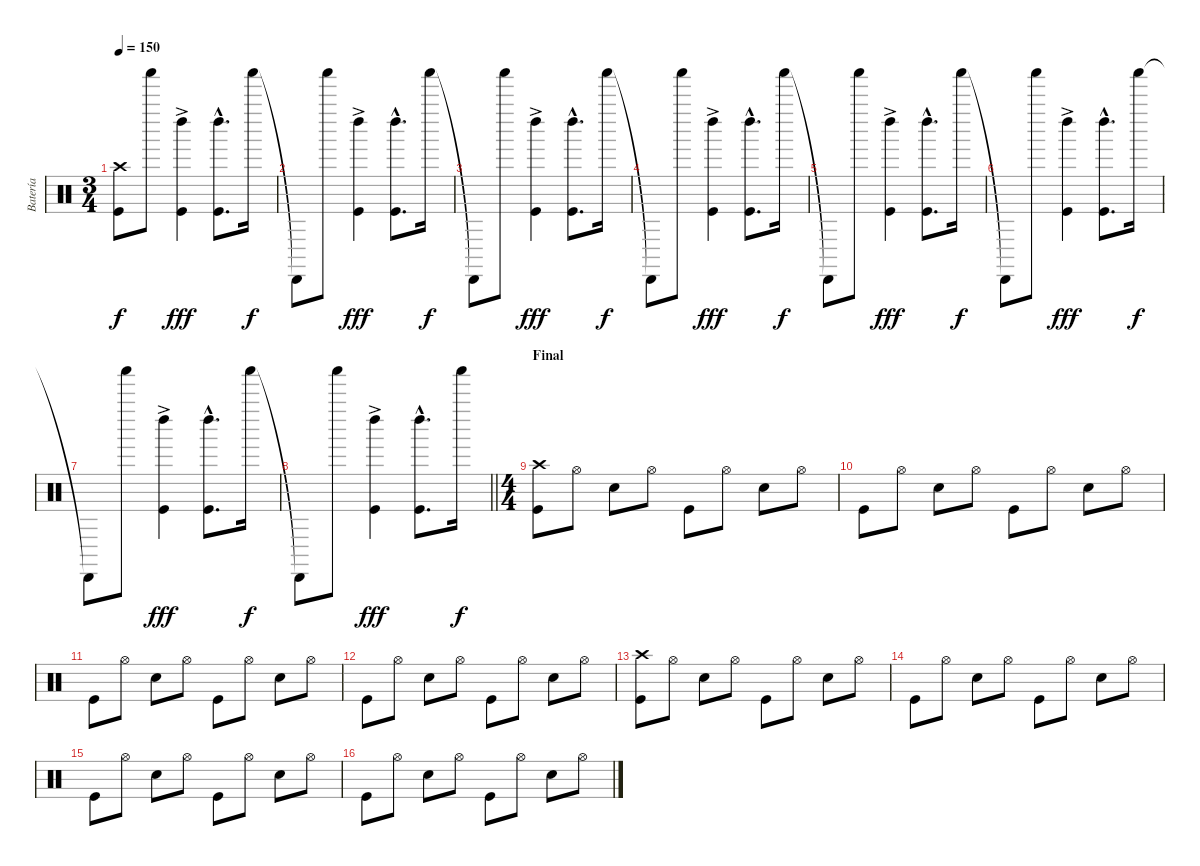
\track ("Batería" "Batería") {instrument percussion}
\staff {score}
\articulation defaults
\ts (3 4)
\tempo 150
\clef neutral
\ks c
("Crash high (hit)" "Kick (hit)").8{dy f} "Shaker (hit)".8 ("Left Maraca (hit)"{ac} "Kick (hit)"{ac}).4{dy fff} ("Left Maraca (hit)"{hac} "Kick (hit)"{hac}).8{d} "Shaker (hit)".16{dy f} |
"Cabasa (hit)"{t}.8 "Shaker (hit)".8 ("Left Maraca (hit)"{ac} "Kick (hit)"{ac}).4{dy fff} ("Left Maraca (hit)"{hac} "Kick (hit)"{hac}).8{d} "Shaker (hit)".16{dy f} |
"Cabasa (hit)"{t}.8 "Shaker (hit)".8 ("Left Maraca (hit)"{ac} "Kick (hit)"{ac}).4{dy fff} ("Left Maraca (hit)"{hac} "Kick (hit)"{hac}).8{d} "Shaker (hit)".16{dy f} |
"Cabasa (hit)"{t}.8 "Shaker (hit)".8 ("Left Maraca (hit)"{ac} "Kick (hit)"{ac}).4{dy fff} ("Left Maraca (hit)"{hac} "Kick (hit)"{hac}).8{d} "Shaker (hit)".16{dy f} |
"Cabasa (hit)"{t}.8 "Shaker (hit)".8 ("Left Maraca (hit)"{ac} "Kick (hit)"{ac}).4{dy fff} ("Left Maraca (hit)"{hac} "Kick (hit)"{hac}).8{d} "Shaker (hit)".16{dy f} |
"Cabasa (hit)"{t}.8 "Shaker (hit)".8 ("Left Maraca (hit)"{ac} "Kick (hit)"{ac}).4{dy fff} ("Left Maraca (hit)"{hac} "Kick (hit)"{hac}).8{d} "Shaker (hit)".16{dy f} |
"Cabasa (hit)"{t}.8 "Shaker (hit)".8 ("Left Maraca (hit)"{ac} "Kick (hit)"{ac}).4{dy fff} ("Left Maraca (hit)"{hac} "Kick (hit)"{hac}).8{d} "Shaker (hit)".16{dy f} |
\barLineRight lightlight "Cabasa (hit)"{t}.8 "Shaker (hit)".8
("Left Maraca (hit)"{ac} "Kick (hit)"{ac}).4{dy fff} ("Left Maraca (hit)"{hac} "Kick (hit)"{hac}).8{d} "Shaker (hit)".16{dy f} |
\ts (4 4)
\section ("" "Final")
("Crash high (hit)" "Kick (hit)").8 "Hi-Hat (open)".8 "Snare (hit) 2".8 "Hi-Hat (open)".8 "Kick (hit)".8 "Hi-Hat (open)".8 "Snare (hit) 2".8 "Hi-Hat (open)".8 |
"Kick (hit)".8 "Hi-Hat (open)".8 "Snare (hit) 2".8 "Hi-Hat (open)".8 "Kick (hit)".8 "Hi-Hat (open)".8 "Snare (hit) 2".8 "Hi-Hat (open)".8 |
"Kick (hit)".8 "Hi-Hat (open)".8 "Snare (hit) 2".8 "Hi-Hat (open)".8 "Kick (hit)".8 "Hi-Hat (open)".8 "Snare (hit) 2".8 "Hi-Hat (open)".8 |
"Kick (hit)".8 "Hi-Hat (open)".8 "Snare (hit) 2".8 "Hi-Hat (open)".8 "Kick (hit)".8 "Hi-Hat (open)".8 "Snare (hit) 2".8 "Hi-Hat (open)".8 |
("Crash high (hit)" "Kick (hit)").8 "Hi-Hat (open)".8 "Snare (hit) 2".8 "Hi-Hat (open)".8 "Kick (hit)".8 "Hi-Hat (open)".8 "Snare (hit) 2".8 "Hi-Hat (open)".8 |
"Kick (hit)".8 "Hi-Hat (open)".8 "Snare (hit) 2".8 "Hi-Hat (open)".8 "Kick (hit)".8 "Hi-Hat (open)".8 "Snare (hit) 2".8 "Hi-Hat (open)".8 |
"Kick (hit)".8 "Hi-Hat (open)".8 "Snare (hit) 2".8 "Hi-Hat (open)".8 "Kick (hit)".8 "Hi-Hat (open)".8 "Snare (hit) 2".8 "Hi-Hat (open)".8 |
"Kick (hit)".8 "Hi-Hat (open)".8 "Snare (hit) 2".8 "Hi-Hat (open)".8 "Kick (hit)".8 "Hi-Hat (open)".8 "Snare (hit) 2".8 "Hi-Hat (open)".8
